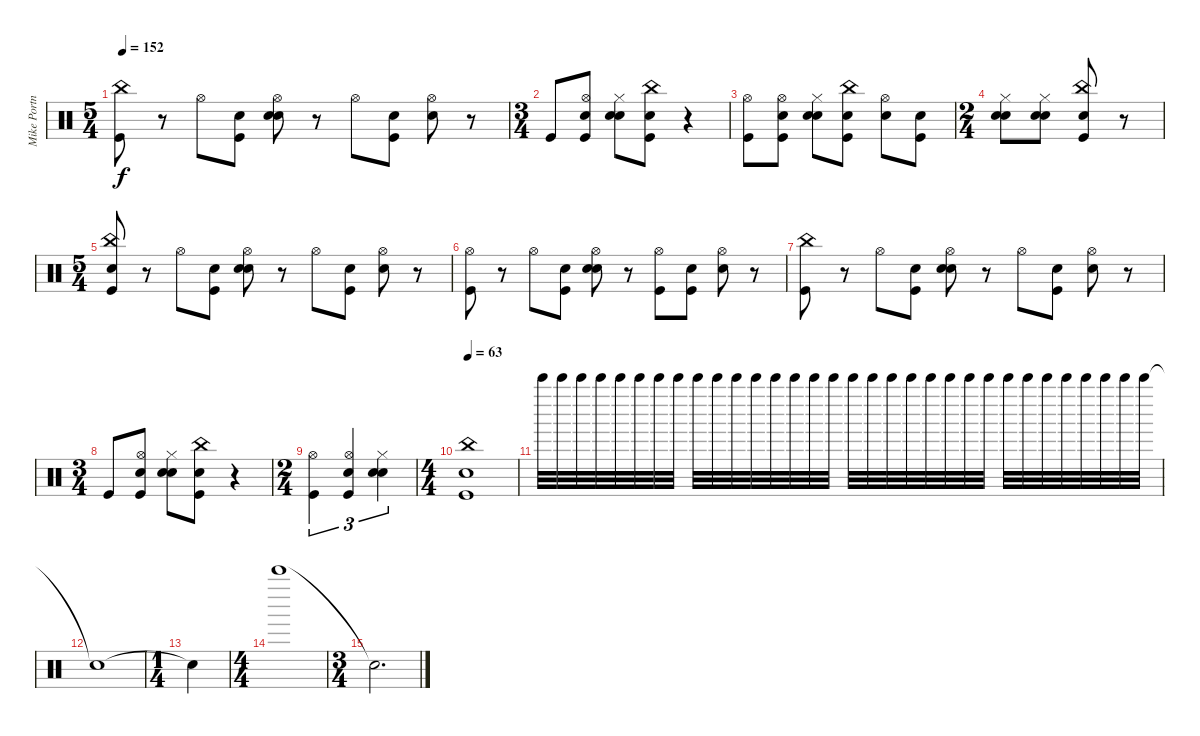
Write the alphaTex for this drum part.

\track ("Mike Portnoy" "Mike Portn") {instrument percussion}
\staff {score}
\articulation defaults
\ts (5 4)
\tempo 152
\clef neutral
\ks c
("Kick (hit)" "China (hit)").8{dy f} r.8 "Hi-Hat (open)".8 ("Snare (hit)" "Kick (hit)").8 ("Snare (hit)" "Snare (hit) 2" "Hi-Hat (open)").8 r.8 "Hi-Hat (open)".8 ("Snare (hit)" "Kick (hit)").8 ("Snare (hit)" "Hi-Hat (open)").8 r.8 |
\ts (3 4)
"Kick (hit)".8 ("Snare (hit)" "Kick (hit)" "Hi-Hat (open)").8 ("Snare (hit)" "Snare (hit) 2" "Hi-Hat (closed)").8 ("Snare (hit)" "Kick (hit)" "China (hit)").8 r.4 |
("Kick (hit)" "Hi-Hat (open)").8 ("Snare (hit)" "Kick (hit)" "Hi-Hat (open)").8 ("Snare (hit)" "Snare (hit) 2" "Hi-Hat (closed)").8 ("Snare (hit)" "Kick (hit)" "China (hit)").8 ("Snare (hit)" "Hi-Hat (open)").8 ("Snare (hit)" "Kick (hit)").8 |
\ts (2 4)
("Snare (hit)" "Snare (hit) 2" "Hi-Hat (closed)").8 ("Snare (hit)" "Snare (hit) 2" "Hi-Hat (closed)").8 ("Snare (hit)" "Kick (hit)" "China (hit)").8 r.8 |
\ts (5 4)
("Snare (hit)" "Kick (hit)" "China (hit)").8 r.8 "Hi-Hat (open)".8 ("Snare (hit)" "Kick (hit)").8 ("Snare (hit)" "Snare (hit) 2" "Hi-Hat (open)").8 r.8 "Hi-Hat (open)".8 ("Snare (hit)" "Kick (hit)").8 ("Snare (hit)" "Hi-Hat (open)").8 r.8 |
("Kick (hit)" "Hi-Hat (open)").8 r.8 "Hi-Hat (open)".8 ("Snare (hit)" "Kick (hit)").8 ("Snare (hit)" "Snare (hit) 2" "Hi-Hat (open)").8 r.8 ("Kick (hit)" "Hi-Hat (open)").8 ("Snare (hit)" "Kick (hit)").8 ("Snare (hit)" "Hi-Hat (open)").8 r.8 |
("Kick (hit)" "China (hit)").8 r.8 "Hi-Hat (open)".8 ("Snare (hit)" "Kick (hit)").8 ("Snare (hit)" "Snare (hit) 2" "Hi-Hat (open)").8 r.8 "Hi-Hat (open)".8 ("Snare (hit)" "Kick (hit)").8 ("Snare (hit)" "Hi-Hat (open)").8 r.8 |
\ts (3 4)
"Kick (hit)".8 ("Snare (hit)" "Kick (hit)" "Hi-Hat (open)").8 ("Snare (hit)" "Snare (hit) 2" "Hi-Hat (closed)").8 ("Snare (hit)" "Kick (hit)" "China (hit)").8 r.4 |
\ts (2 4)
("Kick (hit)" "Hi-Hat (open)").4{tu (3 2)} ("Snare (hit)" "Kick (hit)" "Hi-Hat (open)").4{tu (3 2)} ("Snare (hit)" "Snare (hit) 2" "Hi-Hat (closed)").4{tu (3 2)} |
\ts (4 4)
\tempo 63
("Snare (hit)" "Kick (hit)" "China (hit)").1 |
"Bell Tree (hit)".32 "Bell Tree (hit)".32 "Bell Tree (hit)".32 "Bell Tree (hit)".32 "Bell Tree (hit)".32 "Bell Tree (hit)".32 "Bell Tree (hit)".32 "Bell Tree (hit)".32 "Bell Tree (hit)".32 "Bell Tree (hit)".32 "Bell Tree (hit)".32 "Bell Tree (hit)".32 "Bell Tree (hit)".32 "Bell Tree (hit)".32 "Bell Tree (hit)".32 "Bell Tree (hit)".32 "Bell Tree (hit)".32 "Bell Tree (hit)".32 "Bell Tree (hit)".32 "Bell Tree (hit)".32 "Bell Tree (hit)".32 "Bell Tree (hit)".32 "Bell Tree (hit)".32 "Bell Tree (hit)".32 "Bell Tree (hit)".32 "Bell Tree (hit)".32 "Bell Tree (hit)".32 "Bell Tree (hit)".32 "Bell Tree (hit)".32 "Bell Tree (hit)".32 "Bell Tree (hit)".32 "Bell Tree (hit)".32 |
"Snare (hit)"{t}.1 |
\ts (1 4)
"Snare (hit)"{t}.4 |
\ts (4 4)
"Bell Tree (hit)".1 |
\ts (3 4)
"Snare (hit)"{t}.2{d}
